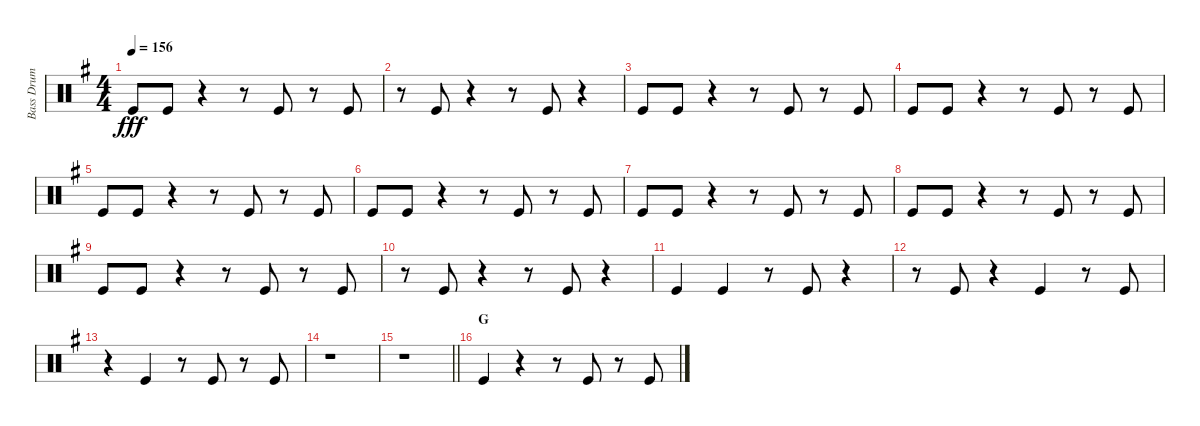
\track ("Bass Drum" "Bass Drum") {instrument percussion}
\staff {score}
\articulation defaults
\ts (4 4)
\tempo 156
\clef neutral
\ks g "Kick (hit)".8{dy fff} "Kick (hit)".8
r.4 r.8 "Kick (hit)".8 r.8 "Kick (hit)".8 |
r.8 "Kick (hit)".8 r.4 r.8 "Kick (hit)".8 r.4 |
"Kick (hit)".8 "Kick (hit)".8 r.4 r.8 "Kick (hit)".8 r.8 "Kick (hit)".8 |
"Kick (hit)".8 "Kick (hit)".8 r.4 r.8 "Kick (hit)".8 r.8 "Kick (hit)".8 |
"Kick (hit)".8 "Kick (hit)".8 r.4 r.8 "Kick (hit)".8 r.8 "Kick (hit)".8 |
"Kick (hit)".8 "Kick (hit)".8 r.4 r.8 "Kick (hit)".8 r.8 "Kick (hit)".8 |
"Kick (hit)".8 "Kick (hit)".8 r.4 r.8 "Kick (hit)".8 r.8 "Kick (hit)".8 |
"Kick (hit)".8 "Kick (hit)".8 r.4 r.8 "Kick (hit)".8 r.8 "Kick (hit)".8 |
"Kick (hit)".8 "Kick (hit)".8 r.4 r.8 "Kick (hit)".8 r.8 "Kick (hit)".8 |
r.8 "Kick (hit)".8 r.4 r.8 "Kick (hit)".8 r.4 |
"Kick (hit)".4 "Kick (hit)".4 r.8 "Kick (hit)".8 r.4 |
r.8 "Kick (hit)".8 r.4 "Kick (hit)".4 r.8 "Kick (hit)".8 |
r.4 "Kick (hit)".4 r.8 "Kick (hit)".8 r.8 "Kick (hit)".8 |
r.1 |
\barLineRight lightlight
r.1 |
\section ("" "G")
"Kick (hit)".4 r.4 r.8 "Kick (hit)".8 r.8 "Kick (hit)".8
